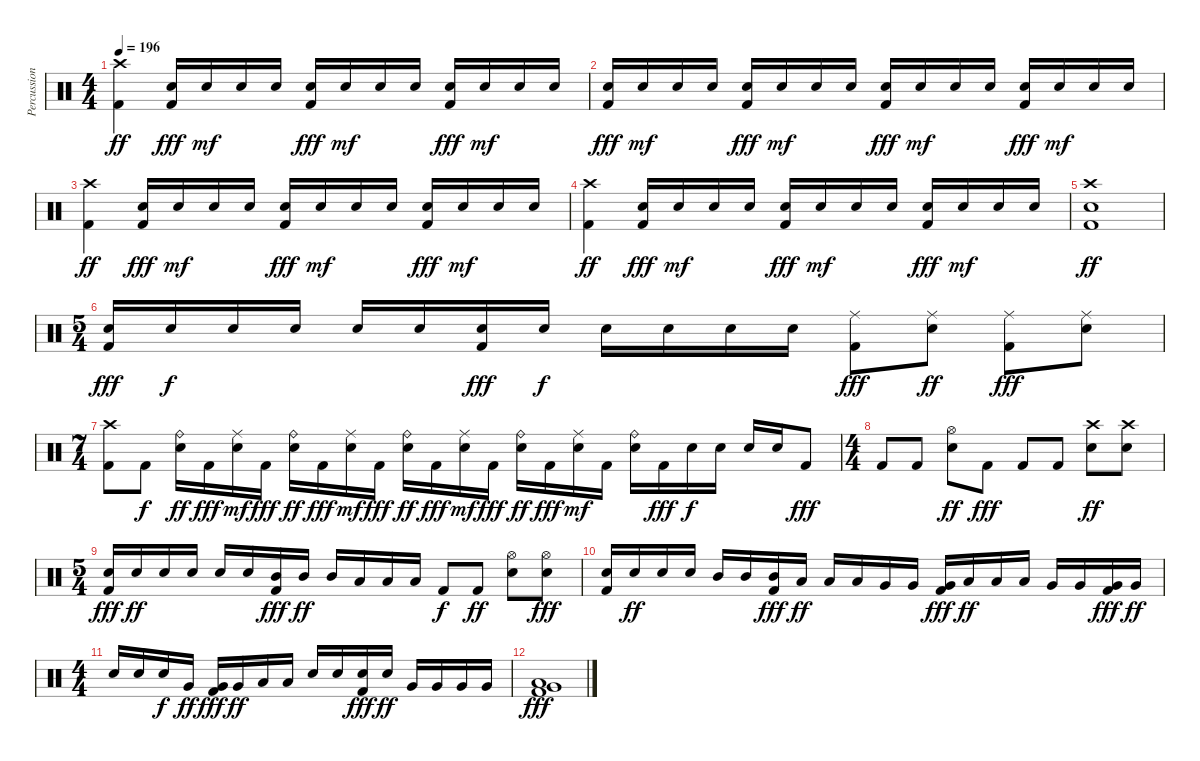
\track ("Percussion" "Percussion") {instrument percussion}
\staff {score}
\articulation defaults
\ts (4 4)
\tempo 196
\clef neutral
\ks c
("Crash high (hit)" "Kick (hit) 2").4{dy ff} ("Electric Snare (hit)" "Kick (hit) 2").16{dy fff} "Electric Snare (hit)".16{dy mf} "Electric Snare (hit)".16 "Electric Snare (hit)".16 ("Electric Snare (hit)" "Kick (hit) 2").16{dy fff} "Electric Snare (hit)".16{dy mf} "Electric Snare (hit)".16 "Electric Snare (hit)".16 ("Electric Snare (hit)" "Kick (hit) 2").16{dy fff} "Electric Snare (hit)".16{dy mf} "Electric Snare (hit)".16 "Electric Snare (hit)".16 |
("Electric Snare (hit)" "Kick (hit) 2").16{dy fff} "Electric Snare (hit)".16{dy mf} "Electric Snare (hit)".16 "Electric Snare (hit)".16 ("Electric Snare (hit)" "Kick (hit) 2").16{dy fff} "Electric Snare (hit)".16{dy mf} "Electric Snare (hit)".16 "Electric Snare (hit)".16 ("Electric Snare (hit)" "Kick (hit) 2").16{dy fff} "Electric Snare (hit)".16{dy mf} "Electric Snare (hit)".16 "Electric Snare (hit)".16 ("Electric Snare (hit)" "Kick (hit) 2").16{dy fff} "Electric Snare (hit)".16{dy mf} "Electric Snare (hit)".16 "Electric Snare (hit)".16 |
("Crash high (hit)" "Kick (hit) 2").4{dy ff} ("Electric Snare (hit)" "Kick (hit) 2").16{dy fff} "Electric Snare (hit)".16{dy mf} "Electric Snare (hit)".16 "Electric Snare (hit)".16 ("Electric Snare (hit)" "Kick (hit) 2").16{dy fff} "Electric Snare (hit)".16{dy mf} "Electric Snare (hit)".16 "Electric Snare (hit)".16 ("Electric Snare (hit)" "Kick (hit) 2").16{dy fff} "Electric Snare (hit)".16{dy mf} "Electric Snare (hit)".16 "Electric Snare (hit)".16 |
("Crash high (hit)" "Kick (hit) 2").4{dy ff} ("Electric Snare (hit)" "Kick (hit) 2").16{dy fff} "Electric Snare (hit)".16{dy mf} "Electric Snare (hit)".16 "Electric Snare (hit)".16 ("Electric Snare (hit)" "Kick (hit) 2").16{dy fff} "Electric Snare (hit)".16{dy mf} "Electric Snare (hit)".16 "Electric Snare (hit)".16 ("Electric Snare (hit)" "Kick (hit) 2").16{dy fff} "Electric Snare (hit)".16{dy mf} "Electric Snare (hit)".16 "Electric Snare (hit)".16 |
("Crash high (hit)" "Electric Snare (hit)" "Kick (hit) 2").1{dy ff} |
\ts (5 4)
("Electric Snare (hit)" "Kick (hit) 2").16{dy fff} "Electric Snare (hit)".16{dy f} "Electric Snare (hit)".16 "Electric Snare (hit)".16 "Electric Snare (hit)".16 "Electric Snare (hit)".16 ("Electric Snare (hit)" "Kick (hit) 2").16{dy fff} "Electric Snare (hit)".16{dy f} "Electric Snare (hit)".16 "Electric Snare (hit)".16 "Electric Snare (hit)".16 "Electric Snare (hit)".16 ("Ride (middle)" "Kick (hit) 2").8{dy fff} ("Ride (middle)" "Electric Snare (hit)").8{dy ff} ("Ride (middle)" "Kick (hit) 2").8{dy fff} ("Ride (middle)" "Electric Snare (hit)").8 |
\ts (7 4)
("Crash high (hit)" "Kick (hit) 2").8 "Kick (hit) 2".8{dy f} ("Ride (bell)" "Electric Snare (hit)").16{dy ff} "Kick (hit) 2".16{dy fff} ("Ride (middle)" "Electric Snare (hit)").16{dy mf} "Kick (hit) 2".16{dy fff} ("Ride (bell)" "Electric Snare (hit)").16{dy ff} "Kick (hit) 2".16{dy fff} ("Ride (middle)" "Electric Snare (hit)").16{dy mf} "Kick (hit) 2".16{dy fff} ("Ride (bell)" "Electric Snare (hit)").16{dy ff} "Kick (hit) 2".16{dy fff} ("Ride (middle)" "Electric Snare (hit)").16{dy mf} "Kick (hit) 2".16{dy fff} ("Ride (bell)" "Electric Snare (hit)").16{dy ff} "Kick (hit) 2".16{dy fff} ("Ride (middle)" "Electric Snare (hit)").16{dy mf} "Kick (hit) 2".16 ("Ride (bell)" "Electric Snare (hit)").16 "Kick (hit) 2".16{dy fff} "Electric Snare (hit)".16{dy f} "Electric Snare (hit)".16 "Electric Snare (hit)".16 "Electric Snare (hit)".16 "Kick (hit) 2".8{dy fff} |
\ts (4 4)
"Kick (hit) 2".8 "Kick (hit) 2".8 ("Hi-Hat (open)" "Electric Snare (hit)").8{dy ff} "Kick (hit) 2".8{dy fff} "Kick (hit) 2".8 "Kick (hit) 2".8 ("Crash high (hit)" "Electric Snare (hit)").8{dy ff} ("Crash high (hit)" "Electric Snare (hit)").8 |
\ts (5 4)
("Electric Snare (hit)" "Kick (hit) 2").16{dy fff} "Electric Snare (hit)".16{dy ff} "Electric Snare (hit)".16 "Electric Snare (hit)".16 "Electric Snare (hit)".16 "Electric Snare (hit)".16 ("Mid Tom (hit)" "Kick (hit) 2").16{dy fff} "Mid Tom (hit)".16{dy ff} "Mid Tom (hit)".16 "Low Tom (hit)".16 "Low Tom (hit)".16 "Low Tom (hit)".16 "Kick (hit) 2".8{dy f} "Kick (hit) 2".8{dy ff} ("Hi-Hat (open)" "Electric Snare (hit)").8 ("Hi-Hat (open)" "Electric Snare (hit)").8{dy fff} |
("Electric Snare (hit)" "Kick (hit) 2").16 "Electric Snare (hit)".16{dy ff} "Electric Snare (hit)".16 "Electric Snare (hit)".16 "Mid Tom (hit)".16 "Mid Tom (hit)".16 ("Mid Tom (hit)" "Kick (hit) 2").16{dy fff} "Low Tom (hit)".16{dy ff} "Low Tom (hit)".16 "Low Tom (hit)".16 "Very Low Tom (hit)".16 "Very Low Tom (hit)".16 ("Very Low Tom (hit)" "Kick (hit) 2").16{dy fff} "Low Tom (hit)".16{dy ff} "Low Tom (hit)".16 "Low Tom (hit)".16 "Very Low Tom (hit)".16 "Very Low Tom (hit)".16 ("Very Low Tom (hit)" "Kick (hit) 2").16{dy fff} "Very Low Tom (hit)".16{dy ff} |
\ts (4 4)
"Electric Snare (hit)".16 "Electric Snare (hit)".16 "Electric Snare (hit)".16{dy f} "Very Low Tom (hit)".16{dy ff} ("Very Low Tom (hit)" "Kick (hit) 2").16{dy fff} "Very Low Tom (hit)".16{dy ff} "Low Tom (hit)".16 "Low Tom (hit)".16 "Electric Snare (hit)".16 "Electric Snare (hit)".16 ("Electric Snare (hit)" "Kick (hit) 2").16{dy fff} "Electric Snare (hit)".16{dy ff} "Very Low Tom (hit)".16 "Very Low Tom (hit)".16 "Very Low Tom (hit)".16 "Very Low Tom (hit)".16 |
("Low Tom (hit)" "Very Low Tom (hit)" "Kick (hit) 2").1{dy fff}
